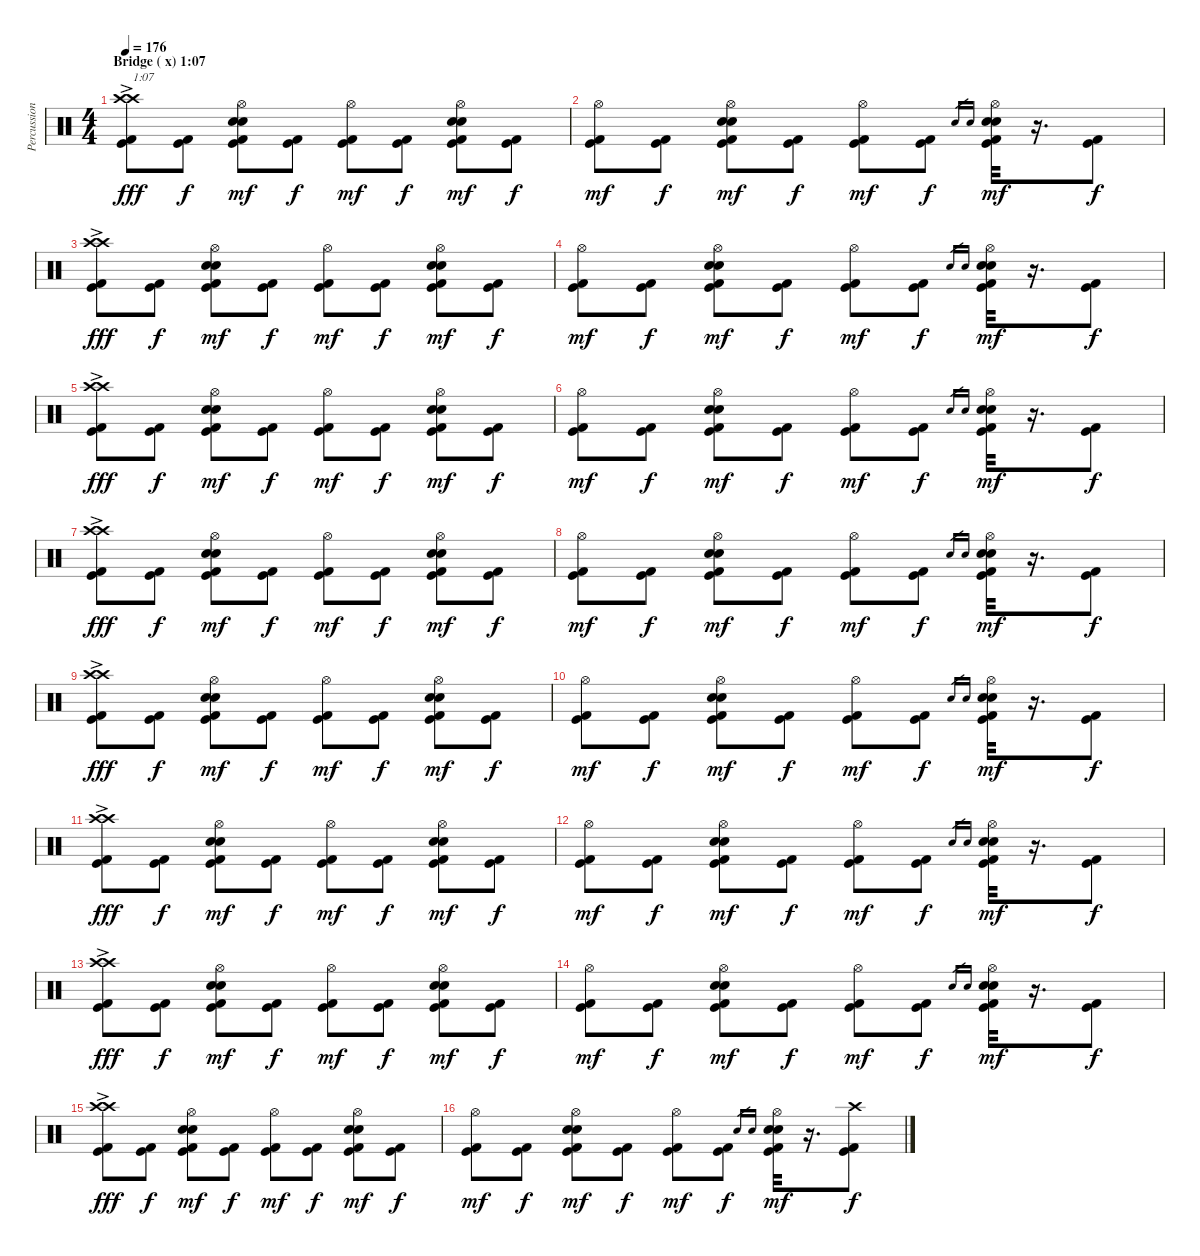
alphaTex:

\track ("Percussion" "Percussion") {instrument percussion}
\staff {score}
\articulation defaults
\ts (4 4)
\section ("" "Bridge ( x) 1:07")
\tempo 176
\clef neutral
\ks c
("Kick (hit) 2" "Kick (hit)" "Crash high (hit)"{ac} "Crash high (hit)"{ac}).8{txt "1:07" dy fff} ("Kick (hit) 2" "Kick (hit)").8{dy f} ("Kick (hit) 2" "Kick (hit)" "Electric Snare (hit)" "Snare (hit) 2" "Hi-Hat (open)").8{dy mf} ("Kick (hit) 2" "Kick (hit)").8{dy f} ("Kick (hit) 2" "Kick (hit)" "Hi-Hat (open)").8{dy mf} ("Kick (hit) 2" "Kick (hit)").8{dy f} ("Kick (hit) 2" "Kick (hit)" "Electric Snare (hit)" "Snare (hit) 2" "Hi-Hat (open)").8{dy mf} ("Kick (hit) 2" "Kick (hit)").8{dy f} |
("Kick (hit) 2" "Kick (hit)" "Hi-Hat (open)").8{dy mf} ("Kick (hit) 2" "Kick (hit)").8{dy f} ("Kick (hit) 2" "Kick (hit)" "Electric Snare (hit)" "Snare (hit) 2" "Hi-Hat (open)").8{dy mf} ("Kick (hit) 2" "Kick (hit)").8{dy f} ("Kick (hit) 2" "Kick (hit)" "Hi-Hat (open)").8{dy mf} ("Kick (hit) 2" "Kick (hit)").8{dy f} "Electric Snare (hit)".16{gr} "Snare (hit) 2".16{gr} ("Kick (hit) 2" "Kick (hit)" "Electric Snare (hit)" "Snare (hit) 2" "Hi-Hat (open)").32{dy mf} r.16{d} ("Kick (hit) 2" "Kick (hit)").8{dy f} |
("Kick (hit) 2" "Kick (hit)" "Crash high (hit)"{ac} "Crash high (hit)"{ac}).8{dy fff} ("Kick (hit) 2" "Kick (hit)").8{dy f} ("Kick (hit) 2" "Kick (hit)" "Electric Snare (hit)" "Snare (hit) 2" "Hi-Hat (open)").8{dy mf} ("Kick (hit) 2" "Kick (hit)").8{dy f} ("Kick (hit) 2" "Kick (hit)" "Hi-Hat (open)").8{dy mf} ("Kick (hit) 2" "Kick (hit)").8{dy f} ("Kick (hit) 2" "Kick (hit)" "Electric Snare (hit)" "Snare (hit) 2" "Hi-Hat (open)").8{dy mf} ("Kick (hit) 2" "Kick (hit)").8{dy f} |
("Kick (hit) 2" "Kick (hit)" "Hi-Hat (open)").8{dy mf} ("Kick (hit) 2" "Kick (hit)").8{dy f} ("Kick (hit) 2" "Kick (hit)" "Electric Snare (hit)" "Snare (hit) 2" "Hi-Hat (open)").8{dy mf} ("Kick (hit) 2" "Kick (hit)").8{dy f} ("Kick (hit) 2" "Kick (hit)" "Hi-Hat (open)").8{dy mf} ("Kick (hit) 2" "Kick (hit)").8{dy f} "Electric Snare (hit)".16{gr} "Snare (hit) 2".16{gr} ("Kick (hit) 2" "Kick (hit)" "Electric Snare (hit)" "Snare (hit) 2" "Hi-Hat (open)").32{dy mf} r.16{d} ("Kick (hit) 2" "Kick (hit)").8{dy f} |
("Kick (hit) 2" "Kick (hit)" "Crash high (hit)"{ac} "Crash high (hit)"{ac}).8{dy fff} ("Kick (hit) 2" "Kick (hit)").8{dy f} ("Kick (hit) 2" "Kick (hit)" "Electric Snare (hit)" "Snare (hit) 2" "Hi-Hat (open)").8{dy mf} ("Kick (hit) 2" "Kick (hit)").8{dy f} ("Kick (hit) 2" "Kick (hit)" "Hi-Hat (open)").8{dy mf} ("Kick (hit) 2" "Kick (hit)").8{dy f} ("Kick (hit) 2" "Kick (hit)" "Electric Snare (hit)" "Snare (hit) 2" "Hi-Hat (open)").8{dy mf} ("Kick (hit) 2" "Kick (hit)").8{dy f} |
("Kick (hit) 2" "Kick (hit)" "Hi-Hat (open)").8{dy mf} ("Kick (hit) 2" "Kick (hit)").8{dy f} ("Kick (hit) 2" "Kick (hit)" "Electric Snare (hit)" "Snare (hit) 2" "Hi-Hat (open)").8{dy mf} ("Kick (hit) 2" "Kick (hit)").8{dy f} ("Kick (hit) 2" "Kick (hit)" "Hi-Hat (open)").8{dy mf} ("Kick (hit) 2" "Kick (hit)").8{dy f} "Electric Snare (hit)".16{gr} "Snare (hit) 2".16{gr} ("Kick (hit) 2" "Kick (hit)" "Electric Snare (hit)" "Snare (hit) 2" "Hi-Hat (open)").32{dy mf} r.16{d} ("Kick (hit) 2" "Kick (hit)").8{dy f} |
("Kick (hit) 2" "Kick (hit)" "Crash high (hit)"{ac} "Crash high (hit)"{ac}).8{dy fff} ("Kick (hit) 2" "Kick (hit)").8{dy f} ("Kick (hit) 2" "Kick (hit)" "Electric Snare (hit)" "Snare (hit) 2" "Hi-Hat (open)").8{dy mf} ("Kick (hit) 2" "Kick (hit)").8{dy f} ("Kick (hit) 2" "Kick (hit)" "Hi-Hat (open)").8{dy mf} ("Kick (hit) 2" "Kick (hit)").8{dy f} ("Kick (hit) 2" "Kick (hit)" "Electric Snare (hit)" "Snare (hit) 2" "Hi-Hat (open)").8{dy mf} ("Kick (hit) 2" "Kick (hit)").8{dy f} |
("Kick (hit) 2" "Kick (hit)" "Hi-Hat (open)").8{dy mf} ("Kick (hit) 2" "Kick (hit)").8{dy f} ("Kick (hit) 2" "Kick (hit)" "Electric Snare (hit)" "Snare (hit) 2" "Hi-Hat (open)").8{dy mf} ("Kick (hit) 2" "Kick (hit)").8{dy f} ("Kick (hit) 2" "Kick (hit)" "Hi-Hat (open)").8{dy mf} ("Kick (hit) 2" "Kick (hit)").8{dy f} "Electric Snare (hit)".16{gr} "Snare (hit) 2".16{gr} ("Kick (hit) 2" "Kick (hit)" "Electric Snare (hit)" "Snare (hit) 2" "Hi-Hat (open)").32{dy mf} r.16{d} ("Kick (hit) 2" "Kick (hit)").8{dy f} |
("Kick (hit) 2" "Kick (hit)" "Crash high (hit)"{ac} "Crash high (hit)"{ac}).8{dy fff} ("Kick (hit) 2" "Kick (hit)").8{dy f} ("Kick (hit) 2" "Kick (hit)" "Electric Snare (hit)" "Snare (hit) 2" "Hi-Hat (open)").8{dy mf} ("Kick (hit) 2" "Kick (hit)").8{dy f} ("Kick (hit) 2" "Kick (hit)" "Hi-Hat (open)").8{dy mf} ("Kick (hit) 2" "Kick (hit)").8{dy f} ("Kick (hit) 2" "Kick (hit)" "Electric Snare (hit)" "Snare (hit) 2" "Hi-Hat (open)").8{dy mf} ("Kick (hit) 2" "Kick (hit)").8{dy f} |
("Kick (hit) 2" "Kick (hit)" "Hi-Hat (open)").8{dy mf} ("Kick (hit) 2" "Kick (hit)").8{dy f} ("Kick (hit) 2" "Kick (hit)" "Electric Snare (hit)" "Snare (hit) 2" "Hi-Hat (open)").8{dy mf} ("Kick (hit) 2" "Kick (hit)").8{dy f} ("Kick (hit) 2" "Kick (hit)" "Hi-Hat (open)").8{dy mf} ("Kick (hit) 2" "Kick (hit)").8{dy f} "Electric Snare (hit)".16{gr} "Snare (hit) 2".16{gr} ("Kick (hit) 2" "Kick (hit)" "Electric Snare (hit)" "Snare (hit) 2" "Hi-Hat (open)").32{dy mf} r.16{d} ("Kick (hit) 2" "Kick (hit)").8{dy f} |
("Kick (hit) 2" "Kick (hit)" "Crash high (hit)"{ac} "Crash high (hit)"{ac}).8{dy fff} ("Kick (hit) 2" "Kick (hit)").8{dy f} ("Kick (hit) 2" "Kick (hit)" "Electric Snare (hit)" "Snare (hit) 2" "Hi-Hat (open)").8{dy mf} ("Kick (hit) 2" "Kick (hit)").8{dy f} ("Kick (hit) 2" "Kick (hit)" "Hi-Hat (open)").8{dy mf} ("Kick (hit) 2" "Kick (hit)").8{dy f} ("Kick (hit) 2" "Kick (hit)" "Electric Snare (hit)" "Snare (hit) 2" "Hi-Hat (open)").8{dy mf} ("Kick (hit) 2" "Kick (hit)").8{dy f} |
("Kick (hit) 2" "Kick (hit)" "Hi-Hat (open)").8{dy mf} ("Kick (hit) 2" "Kick (hit)").8{dy f} ("Kick (hit) 2" "Kick (hit)" "Electric Snare (hit)" "Snare (hit) 2" "Hi-Hat (open)").8{dy mf} ("Kick (hit) 2" "Kick (hit)").8{dy f} ("Kick (hit) 2" "Kick (hit)" "Hi-Hat (open)").8{dy mf} ("Kick (hit) 2" "Kick (hit)").8{dy f} "Electric Snare (hit)".16{gr} "Snare (hit) 2".16{gr} ("Kick (hit) 2" "Kick (hit)" "Electric Snare (hit)" "Snare (hit) 2" "Hi-Hat (open)").32{dy mf} r.16{d} ("Kick (hit) 2" "Kick (hit)").8{dy f} |
("Kick (hit) 2" "Kick (hit)" "Crash high (hit)"{ac} "Crash high (hit)"{ac}).8{dy fff} ("Kick (hit) 2" "Kick (hit)").8{dy f} ("Kick (hit) 2" "Kick (hit)" "Electric Snare (hit)" "Snare (hit) 2" "Hi-Hat (open)").8{dy mf} ("Kick (hit) 2" "Kick (hit)").8{dy f} ("Kick (hit) 2" "Kick (hit)" "Hi-Hat (open)").8{dy mf} ("Kick (hit) 2" "Kick (hit)").8{dy f} ("Kick (hit) 2" "Kick (hit)" "Electric Snare (hit)" "Snare (hit) 2" "Hi-Hat (open)").8{dy mf} ("Kick (hit) 2" "Kick (hit)").8{dy f} |
("Kick (hit) 2" "Kick (hit)" "Hi-Hat (open)").8{dy mf} ("Kick (hit) 2" "Kick (hit)").8{dy f} ("Kick (hit) 2" "Kick (hit)" "Electric Snare (hit)" "Snare (hit) 2" "Hi-Hat (open)").8{dy mf} ("Kick (hit) 2" "Kick (hit)").8{dy f} ("Kick (hit) 2" "Kick (hit)" "Hi-Hat (open)").8{dy mf} ("Kick (hit) 2" "Kick (hit)").8{dy f} "Electric Snare (hit)".16{gr} "Snare (hit) 2".16{gr} ("Kick (hit) 2" "Kick (hit)" "Electric Snare (hit)" "Snare (hit) 2" "Hi-Hat (open)").32{dy mf} r.16{d} ("Kick (hit) 2" "Kick (hit)").8{dy f} |
("Kick (hit) 2" "Kick (hit)" "Crash high (hit)"{ac} "Crash high (hit)"{ac}).8{dy fff} ("Kick (hit) 2" "Kick (hit)").8{dy f} ("Kick (hit) 2" "Kick (hit)" "Electric Snare (hit)" "Snare (hit) 2" "Hi-Hat (open)").8{dy mf} ("Kick (hit) 2" "Kick (hit)").8{dy f} ("Kick (hit) 2" "Kick (hit)" "Hi-Hat (open)").8{dy mf} ("Kick (hit) 2" "Kick (hit)").8{dy f} ("Kick (hit) 2" "Kick (hit)" "Electric Snare (hit)" "Snare (hit) 2" "Hi-Hat (open)").8{dy mf} ("Kick (hit) 2" "Kick (hit)").8{dy f} |
("Kick (hit) 2" "Kick (hit)" "Hi-Hat (open)").8{dy mf} ("Kick (hit) 2" "Kick (hit)").8{dy f} ("Kick (hit) 2" "Kick (hit)" "Electric Snare (hit)" "Snare (hit) 2" "Hi-Hat (open)").8{dy mf} ("Kick (hit) 2" "Kick (hit)").8{dy f} ("Kick (hit) 2" "Kick (hit)" "Hi-Hat (open)").8{dy mf} ("Kick (hit) 2" "Kick (hit)").8{dy f} "Electric Snare (hit)".16{gr} "Snare (hit) 2".16{gr} ("Kick (hit) 2" "Kick (hit)" "Electric Snare (hit)" "Snare (hit) 2" "Hi-Hat (open)").32{dy mf} r.16{d} ("Kick (hit) 2" "Kick (hit)" "Crash high (hit)").8{dy f}
